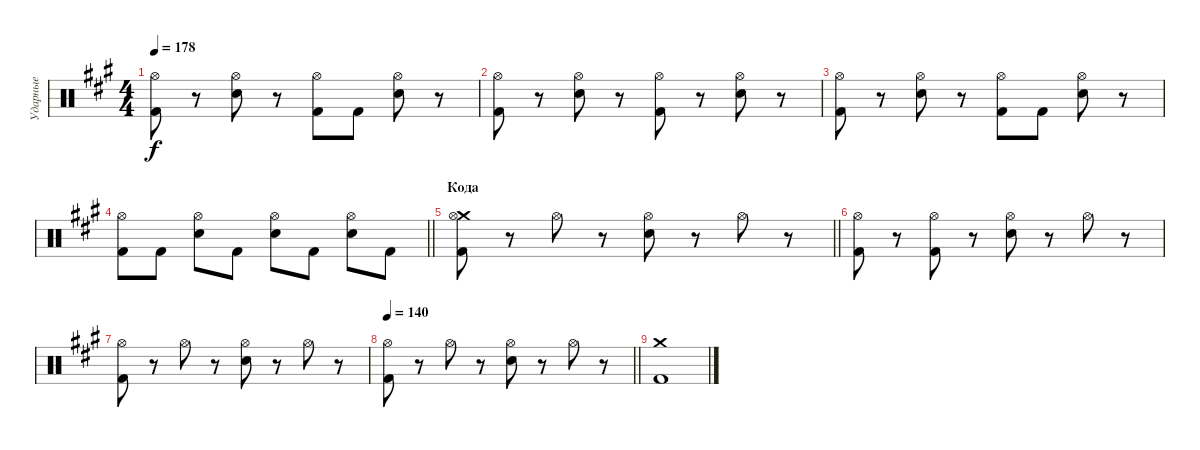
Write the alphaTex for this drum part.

\track ("Ударные" "Ударные") {instrument percussion}
\staff {score}
\articulation defaults
\ts (4 4)
\tempo 178
\clef neutral
\ks f#minor
("Kick (hit) 2" "Hi-Hat (open)").8{dy f} r.8 ("Electric Snare (hit)" "Hi-Hat (open)").8 r.8 ("Kick (hit) 2" "Hi-Hat (open)").8 "Kick (hit) 2".8 ("Electric Snare (hit)" "Hi-Hat (open)").8 r.8 |
("Kick (hit) 2" "Hi-Hat (open)").8 r.8 ("Electric Snare (hit)" "Hi-Hat (open)").8 r.8 ("Kick (hit) 2" "Hi-Hat (open)").8 r.8 ("Electric Snare (hit)" "Hi-Hat (open)").8 r.8 |
("Kick (hit) 2" "Hi-Hat (open)").8 r.8 ("Electric Snare (hit)" "Hi-Hat (open)").8 r.8 ("Kick (hit) 2" "Hi-Hat (open)").8 "Kick (hit) 2".8 ("Electric Snare (hit)" "Hi-Hat (open)").8 r.8 |
\barLineRight lightlight
("Kick (hit) 2" "Hi-Hat (open)").8 "Kick (hit) 2".8 ("Electric Snare (hit)" "Hi-Hat (open)").8 "Kick (hit) 2".8 ("Electric Snare (hit)" "Hi-Hat (open)").8 "Kick (hit) 2".8 ("Electric Snare (hit)" "Hi-Hat (open)").8 "Kick (hit) 2".8 |
\section ("" "Кода")
\barLineRight lightlight
("Crash medium (hit)" "Kick (hit) 2" "Hi-Hat (open)").8 r.8 "Hi-Hat (open)".8 r.8 ("Electric Snare (hit)" "Hi-Hat (open)").8 r.8 "Hi-Hat (open)".8 r.8 |
("Kick (hit) 2" "Hi-Hat (open)").8 r.8 ("Kick (hit) 2" "Hi-Hat (open)").8 r.8 ("Electric Snare (hit)" "Hi-Hat (open)").8 r.8 "Hi-Hat (open)".8 r.8 |
("Kick (hit) 2" "Hi-Hat (open)").8 r.8 "Hi-Hat (open)".8 r.8 ("Electric Snare (hit)" "Hi-Hat (open)").8 r.8 "Hi-Hat (open)".8 r.8 |
\tempo 140
\barLineRight lightlight
("Kick (hit) 2" "Hi-Hat (open)").8 r.8 "Hi-Hat (open)".8 r.8 ("Electric Snare (hit)" "Hi-Hat (open)").8 r.8 "Hi-Hat (open)".8 r.8 |
\section ("" "")
("Crash medium (hit)" "Kick (hit) 2").1
